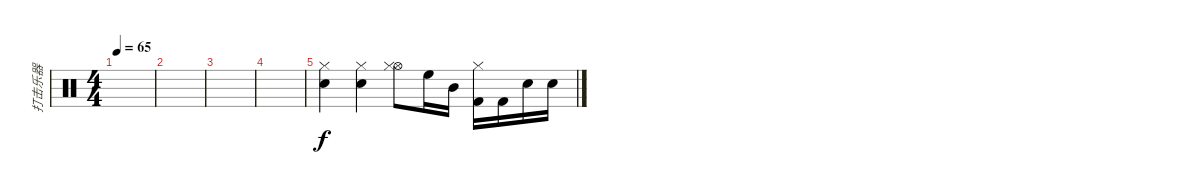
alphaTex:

\track ("打击乐器" "打击乐器") {instrument percussion}
\staff {score}
\articulation defaults
\ts (4 4)
\tempo 65
\clef neutral
\ks c
|
|
|
|
("Snare (hit) 2" "Hi-Hat (closed)").4 ("Snare (hit) 2" "Hi-Hat (closed)").4 ("Hi-Hat (open)" "Hi-Hat (closed)").8 "High Floor Tom (hit)".16 "Mid Tom (hit)".16 ("Kick (hit) 2" "Hi-Hat (closed)").16 "Kick (hit) 2".16 "Snare (hit) 2".16 "Snare (hit) 2".16
